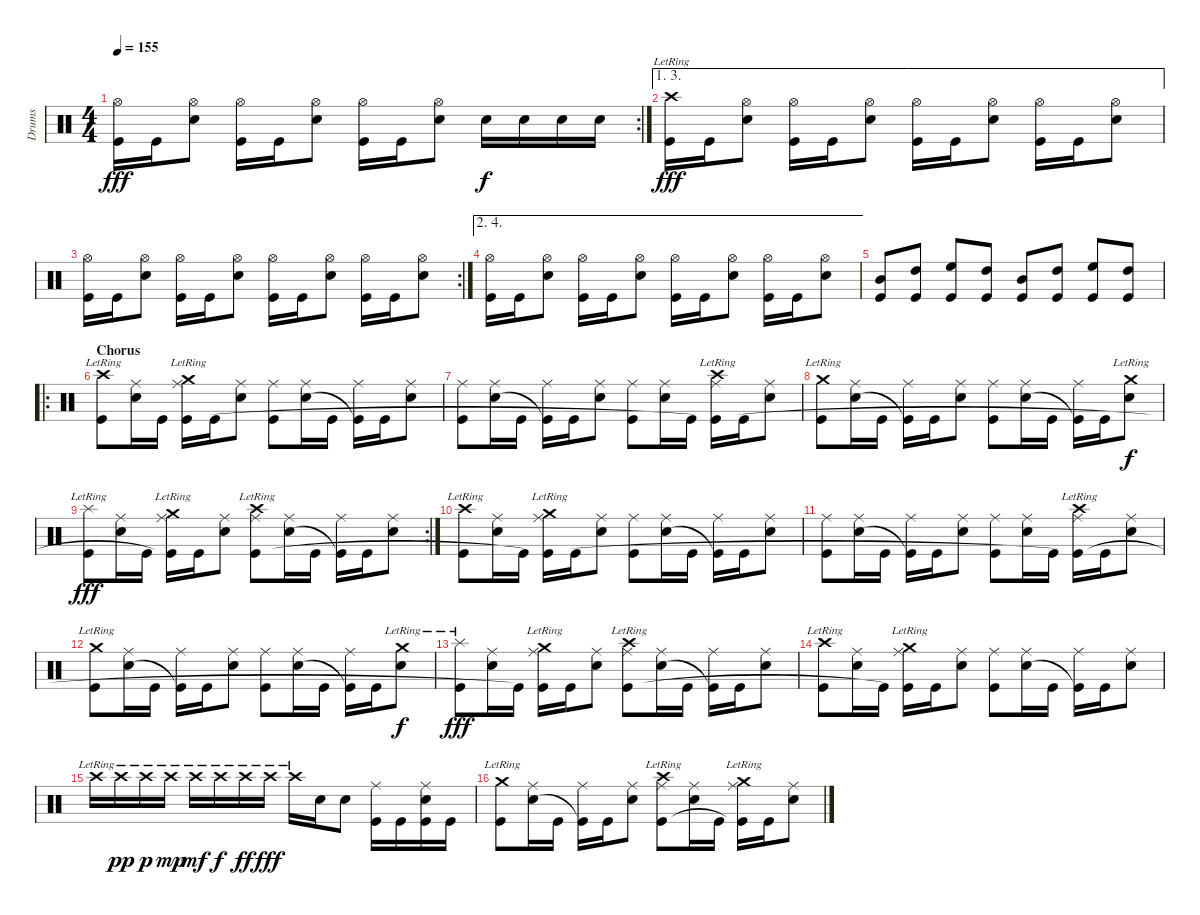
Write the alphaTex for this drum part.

\track ("Drums" "Drums") {instrument percussion}
\staff {score}
\articulation defaults
\rc 2
\ts (4 4)
\tempo 155
\clef neutral
\ks c
("Hi-Hat (open)" "Kick (hit)").16{dy fff} "Kick (hit)".16 ("Hi-Hat (open)" "Snare (hit) 2").8 ("Hi-Hat (open)" "Kick (hit)").16 "Kick (hit)".16 ("Hi-Hat (open)" "Snare (hit) 2").8 ("Hi-Hat (open)" "Kick (hit)").16 "Kick (hit)".16 ("Hi-Hat (open)" "Snare (hit) 2").8 "Snare (hit) 2".16{dy f} "Snare (hit) 2".16 "Snare (hit) 2".16 "Snare (hit) 2".16 |
\ae (1 3)
("Crash high (hit)"{lr} "Kick (hit)").16{dy fff} "Kick (hit)".16 ("Hi-Hat (open)" "Snare (hit) 2").8 ("Hi-Hat (open)" "Kick (hit)").16 "Kick (hit)".16 ("Hi-Hat (open)" "Snare (hit) 2").8 ("Hi-Hat (open)" "Kick (hit)").16 "Kick (hit)".16 ("Hi-Hat (open)" "Snare (hit) 2").8 ("Hi-Hat (open)" "Kick (hit)").16 "Kick (hit)".16 ("Hi-Hat (open)" "Snare (hit) 2").8 |
\rc 2
("Hi-Hat (open)" "Kick (hit)").16 "Kick (hit)".16 ("Hi-Hat (open)" "Snare (hit) 2").8 ("Hi-Hat (open)" "Kick (hit)").16 "Kick (hit)".16 ("Hi-Hat (open)" "Snare (hit) 2").8 ("Hi-Hat (open)" "Kick (hit)").16 "Kick (hit)".16 ("Hi-Hat (open)" "Snare (hit) 2").8 ("Hi-Hat (open)" "Kick (hit)").16 "Kick (hit)".16 ("Hi-Hat (open)" "Snare (hit) 2").8 |
\ae (2 4)
("Hi-Hat (open)" "Kick (hit)").16 "Kick (hit)".16 ("Hi-Hat (open)" "Snare (hit) 2").8 ("Hi-Hat (open)" "Kick (hit)").16 "Kick (hit)".16 ("Hi-Hat (open)" "Snare (hit) 2").8 ("Hi-Hat (open)" "Kick (hit)").16 "Kick (hit)".16 ("Hi-Hat (open)" "Snare (hit) 2").8 ("Hi-Hat (open)" "Kick (hit)").16 "Kick (hit)".16 ("Hi-Hat (open)" "Snare (hit) 2").8 |
("Mid Tom (hit)" "Kick (hit)").8{balance 8} ("High Tom (hit)" "Kick (hit)").8{balance 3} ("High Floor Tom (hit)" "Kick (hit)").8{balance 13} ("High Tom (hit)" "Kick (hit)").8{balance 3} ("Mid Tom (hit)" "Kick (hit)").8{balance 8} ("High Tom (hit)" "Kick (hit)").8{balance 3} ("High Floor Tom (hit)" "Kick (hit)").8{balance 13} ("High Tom (hit)" "Kick (hit)").8{balance 3} |
\ro
\section ("" "Chorus")
("Crash high (hit)"{lr} "Kick (hit)").8{balance 8} ("Ride (middle)" "Snare (hit) 2").16 "Kick (hit)".16 ("Crash medium (hit)"{lr} "Ride (middle)" "Kick (hit)").16 "Kick (hit)".16 ("Ride (middle)" "Snare (hit) 2").8 ("Ride (middle)" "Kick (hit)").8 ("Ride (middle)" "Snare (hit) 2").16 "Kick (hit)".16 ("Ride (middle)" "Kick (hit)"{t}).16 "Kick (hit)".16 ("Ride (middle)" "Snare (hit) 2").8 |
("Ride (middle)" "Kick (hit)").8 ("Ride (middle)" "Snare (hit) 2").16 "Kick (hit)".16 ("Ride (middle)" "Kick (hit)"{t}).16 "Kick (hit)".16 ("Ride (middle)" "Snare (hit) 2").8 ("Ride (middle)" "Kick (hit)").8 ("Ride (middle)" "Snare (hit) 2").16 "Kick (hit)".16 ("Crash high (hit)"{lr} "Ride (middle)" "Kick (hit)"{t}).16 "Kick (hit)".16 ("Ride (middle)" "Snare (hit) 2").8 |
("Crash medium (hit)"{lr} "Kick (hit)").8 ("Ride (middle)" "Snare (hit) 2").16 "Kick (hit)".16 ("Ride (middle)" "Kick (hit)"{t}).16 "Kick (hit)".16 ("Ride (middle)" "Snare (hit) 2").8 ("Ride (middle)" "Kick (hit)").8 ("Ride (middle)" "Snare (hit) 2").16 "Kick (hit)".16 ("Ride (middle)" "Kick (hit)"{t}).16 "Kick (hit)".16 ("Crash medium (hit)"{lr} "Snare (hit) 2").8{dy f} |
\rc 2
("Splash (hit)"{lr} "Kick (hit)").8{dy fff} ("Ride (middle)" "Snare (hit) 2").16 "Kick (hit)".16 ("Crash medium (hit)"{lr} "Ride (middle)" "Kick (hit)"{t}).16 "Kick (hit)".16 ("Ride (middle)" "Snare (hit) 2").8 ("Crash high (hit)"{lr} "Ride (middle)" "Kick (hit)").8 ("Ride (middle)" "Snare (hit) 2").16 "Kick (hit)".16 ("Ride (middle)" "Kick (hit)"{t}).16 "Kick (hit)".16 ("Ride (middle)" "Snare (hit) 2").8 |
("Crash high (hit)"{lr} "Kick (hit)").8 ("Ride (middle)" "Snare (hit) 2").16 "Kick (hit)".16 ("Crash medium (hit)"{lr} "Ride (middle)" "Kick (hit)"{t}).16 "Kick (hit)".16 ("Ride (middle)" "Snare (hit) 2").8 ("Ride (middle)" "Kick (hit)").8 ("Ride (middle)" "Snare (hit) 2").16 "Kick (hit)".16 ("Ride (middle)" "Kick (hit)"{t}).16 "Kick (hit)".16 ("Ride (middle)" "Snare (hit) 2").8 |
("Ride (middle)" "Kick (hit)").8 ("Ride (middle)" "Snare (hit) 2").16 "Kick (hit)".16 ("Ride (middle)" "Kick (hit)"{t}).16 "Kick (hit)".16 ("Ride (middle)" "Snare (hit) 2").8 ("Ride (middle)" "Kick (hit)").8 ("Ride (middle)" "Snare (hit) 2").16 "Kick (hit)".16 ("Crash high (hit)"{lr} "Ride (middle)" "Kick (hit)"{t}).16 "Kick (hit)".16 ("Ride (middle)" "Snare (hit) 2").8 |
("Crash medium (hit)"{lr} "Kick (hit)").8 ("Ride (middle)" "Snare (hit) 2").16 "Kick (hit)".16 ("Ride (middle)" "Kick (hit)"{t}).16 "Kick (hit)".16 ("Ride (middle)" "Snare (hit) 2").8 ("Ride (middle)" "Kick (hit)").8 ("Ride (middle)" "Snare (hit) 2").16 "Kick (hit)".16 ("Ride (middle)" "Kick (hit)"{t}).16 "Kick (hit)".16 ("Crash medium (hit)"{lr} "Snare (hit) 2").8{dy f} |
("Splash (hit)"{lr} "Kick (hit)").8{dy fff} ("Ride (middle)" "Snare (hit) 2").16 "Kick (hit)".16 ("Crash medium (hit)"{lr} "Ride (middle)" "Kick (hit)"{t}).16 "Kick (hit)".16 ("Ride (middle)" "Snare (hit) 2").8 ("Crash high (hit)"{lr} "Ride (middle)" "Kick (hit)").8 ("Ride (middle)" "Snare (hit) 2").16 "Kick (hit)".16 ("Ride (middle)" "Kick (hit)"{t}).16 "Kick (hit)".16 ("Ride (middle)" "Snare (hit) 2").8 |
("Crash high (hit)"{lr} "Kick (hit)").8 ("Ride (middle)" "Snare (hit) 2").16 "Kick (hit)".16 ("Crash medium (hit)"{lr} "Ride (middle)" "Kick (hit)"{t}).16 "Kick (hit)".16 ("Ride (middle)" "Snare (hit) 2").8 ("Ride (middle)" "Kick (hit)").8 ("Ride (middle)" "Snare (hit) 2").16 "Kick (hit)".16 ("Ride (middle)" "Kick (hit)"{t}).16 "Kick (hit)".16 ("Ride (middle)" "Snare (hit) 2").8 |
"Crash high (hit)"{lr}.16 "Crash high (hit)"{lr}.16{dy pp} "Crash high (hit)"{lr}.16{dy p} "Crash high (hit)"{lr}.16{dy mp} "Crash high (hit)"{lr}.16{dy mf} "Crash high (hit)"{lr}.16{dy f} "Crash high (hit)"{lr}.16{dy ff} "Crash high (hit)"{lr}.16{dy fff} "Crash high (hit)"{lr}.16 "Snare (hit) 2".16 "Snare (hit) 2".8 ("Ride (middle)" "Kick (hit)").16 "Kick (hit)".16 ("Ride (middle)" "Snare (hit) 2" "Kick (hit)").16 "Kick (hit)".16 |
("Crash medium (hit)"{lr} "Kick (hit)").8 ("Ride (middle)" "Snare (hit) 2").16 "Kick (hit)".16 ("Ride (middle)" "Kick (hit)"{t}).16 "Kick (hit)".16 ("Ride (middle)" "Snare (hit) 2").8 ("Crash high (hit)"{lr} "Ride (middle)" "Kick (hit)").8 ("Ride (middle)" "Snare (hit) 2").16 "Kick (hit)".16 ("Crash medium (hit)"{lr} "Ride (middle)" "Kick (hit)"{t}).16 "Kick (hit)".16 ("Ride (middle)" "Snare (hit) 2").8
